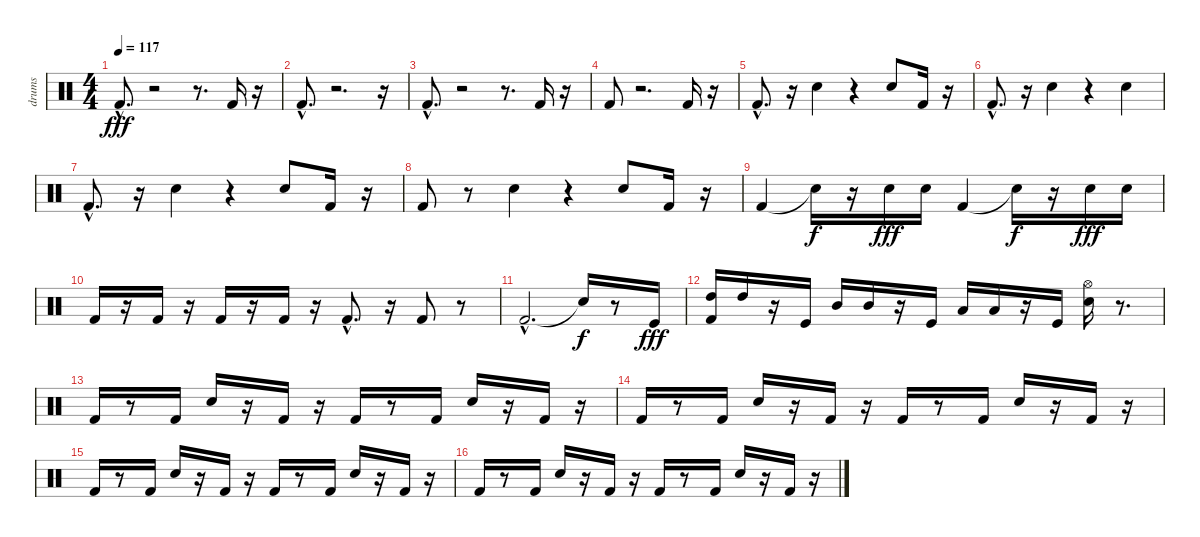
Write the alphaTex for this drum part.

\track ("drums" "drums") {instrument percussion}
\staff {score}
\articulation defaults
\ts (4 4)
\tempo 117
\clef neutral
\ks c "Kick (hit) 2"{hac}.8{d dy fff}
r.2 r.8{d} "Kick (hit) 2".16 r.16 |
"Kick (hit) 2"{hac}.8{d} r.2{d} r.16 |
"Kick (hit) 2"{hac}.8{d} r.2 r.8{d} "Kick (hit) 2".16 r.16 |
"Kick (hit) 2".8 r.2{d} "Kick (hit) 2".16 r.16 |
"Kick (hit) 2"{hac}.8{d} r.16 "Snare (hit) 2".4 r.4 "Snare (hit) 2".8 "Kick (hit) 2".16 r.16 |
"Kick (hit) 2"{hac}.8{d} r.16 "Snare (hit) 2".4 r.4 "Snare (hit) 2".4 |
"Kick (hit) 2"{hac}.8{d} r.16 "Snare (hit) 2".4 r.4 "Snare (hit) 2".8 "Kick (hit) 2".16 r.16 |
"Kick (hit) 2".8 r.8 "Snare (hit) 2".4 r.4 "Snare (hit) 2".8 "Kick (hit) 2".16 r.16 |
"Kick (hit) 2".4 "Snare (hit)"{t}.16{dy f} r.16 "Snare (hit) 2".16{dy fff} "Snare (hit) 2".16 "Kick (hit) 2".4 "Snare (hit)"{t}.16{dy f} r.16 "Snare (hit) 2".16{dy fff} "Snare (hit) 2".16 |
"Kick (hit) 2".16 r.16 "Kick (hit) 2".16 r.16 "Kick (hit) 2".16 r.16 "Kick (hit) 2".16 r.16 "Kick (hit) 2"{hac}.8{d} r.16 "Kick (hit) 2".8 r.8 |
"Kick (hit) 2"{hac}.2{d} "Snare (hit)"{t}.16{dy f} r.8 "Kick (hit)".16{dy fff} |
("Kick (hit) 2" "High Tom (hit)").16 "High Tom (hit)".16 r.16 "Kick (hit)".16 "Mid Tom (hit)".16 "Mid Tom (hit)".16 r.16 "Kick (hit)".16 "Low Tom (hit)".16 "Low Tom (hit)".16 r.16 "Kick (hit)".16 ("Hi-Hat (open)" "Snare (hit) 2").16 r.8{d} |
"Kick (hit) 2".16 r.8 "Kick (hit) 2".16 "Snare (hit) 2".16 r.16 "Kick (hit) 2".16 r.16 "Kick (hit) 2".16 r.8 "Kick (hit) 2".16 "Snare (hit) 2".16 r.16 "Kick (hit) 2".16 r.16 |
"Kick (hit) 2".16 r.8 "Kick (hit) 2".16 "Snare (hit) 2".16 r.16 "Kick (hit) 2".16 r.16 "Kick (hit) 2".16 r.8 "Kick (hit) 2".16 "Snare (hit) 2".16 r.16 "Kick (hit) 2".16 r.16 |
"Kick (hit) 2".16 r.8 "Kick (hit) 2".16 "Snare (hit) 2".16 r.16 "Kick (hit) 2".16 r.16 "Kick (hit) 2".16 r.8 "Kick (hit) 2".16 "Snare (hit) 2".16 r.16 "Kick (hit) 2".16 r.16 |
"Kick (hit) 2".16 r.8 "Kick (hit) 2".16 "Snare (hit) 2".16 r.16 "Kick (hit) 2".16 r.16 "Kick (hit) 2".16 r.8 "Kick (hit) 2".16 "Snare (hit) 2".16 r.16 "Kick (hit) 2".16 r.16
